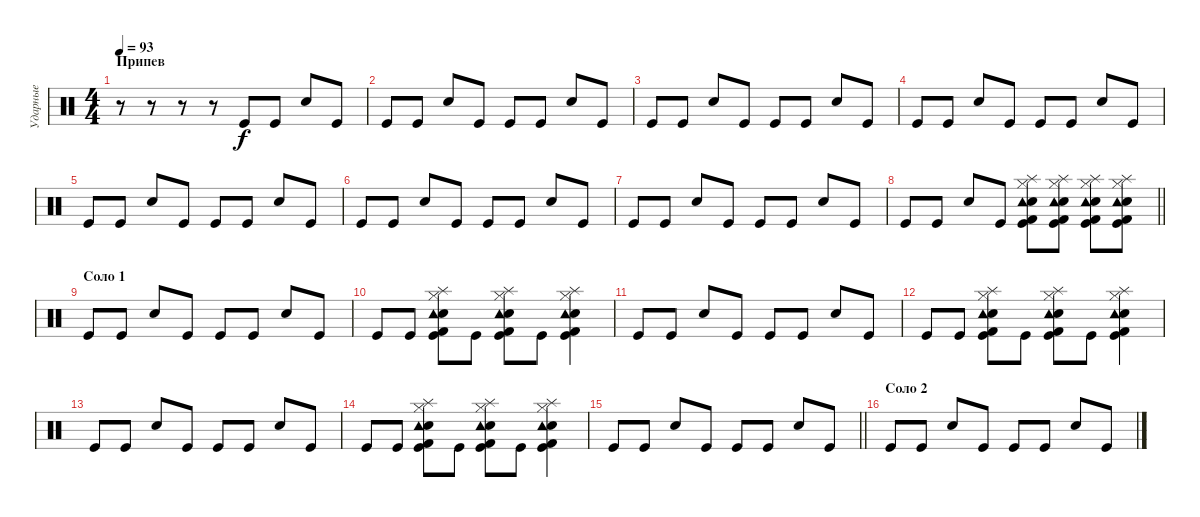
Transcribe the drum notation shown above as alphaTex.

\track ("Ударные" "Ударные") {instrument percussion}
\staff {score}
\articulation defaults
\ts (4 4)
\section ("" "Припев")
\tempo 93
\clef neutral
\ks c
r.8{dy f} r.8 r.8 r.8 "Kick (hit)".8 "Kick (hit)".8 "Snare (hit) 2".8 "Kick (hit)".8 |
"Kick (hit)".8 "Kick (hit)".8 "Snare (hit) 2".8 "Kick (hit)".8 "Kick (hit)".8 "Kick (hit)".8 "Snare (hit) 2".8 "Kick (hit)".8 |
"Kick (hit)".8 "Kick (hit)".8 "Snare (hit) 2".8 "Kick (hit)".8 "Kick (hit)".8 "Kick (hit)".8 "Snare (hit) 2".8 "Kick (hit)".8 |
"Kick (hit)".8 "Kick (hit)".8 "Snare (hit) 2".8 "Kick (hit)".8 "Kick (hit)".8 "Kick (hit)".8 "Snare (hit) 2".8 "Kick (hit)".8 |
"Kick (hit)".8 "Kick (hit)".8 "Snare (hit) 2".8 "Kick (hit)".8 "Kick (hit)".8 "Kick (hit)".8 "Snare (hit) 2".8 "Kick (hit)".8 |
"Kick (hit)".8 "Kick (hit)".8 "Snare (hit) 2".8 "Kick (hit)".8 "Kick (hit)".8 "Kick (hit)".8 "Snare (hit) 2".8 "Kick (hit)".8 |
"Kick (hit)".8 "Kick (hit)".8 "Snare (hit) 2".8 "Kick (hit)".8 "Kick (hit)".8 "Kick (hit)".8 "Snare (hit) 2".8 "Kick (hit)".8 |
\barLineRight lightlight "Kick (hit)".8 "Kick (hit)".8 "Snare (hit) 2".8 "Kick (hit)".8
("Kick (hit)" "Snare (hit) 2" "Kick (hit) 2" "Splash (hit)" "Tambourine (hit)" "Hi-Hat (closed)").8 ("Kick (hit)" "Snare (hit) 2" "Kick (hit) 2" "Splash (hit)" "Tambourine (hit)" "Hi-Hat (closed)").8 ("Kick (hit)" "Snare (hit) 2" "Kick (hit) 2" "Splash (hit)" "Tambourine (hit)" "Hi-Hat (closed)").8 ("Kick (hit)" "Snare (hit) 2" "Kick (hit) 2" "Splash (hit)" "Tambourine (hit)" "Hi-Hat (closed)").8 |
\section ("" "Соло 1")
"Kick (hit)".8 "Kick (hit)".8 "Snare (hit) 2".8 "Kick (hit)".8 "Kick (hit)".8 "Kick (hit)".8 "Snare (hit) 2".8 "Kick (hit)".8 |
"Kick (hit)".8 "Kick (hit)".8 ("Kick (hit)" "Kick (hit) 2" "Snare (hit) 2" "Hi-Hat (closed)" "Splash (hit)" "Tambourine (hit)").8 "Kick (hit)".8 ("Kick (hit)" "Kick (hit) 2" "Snare (hit) 2" "Hi-Hat (closed)" "Splash (hit)" "Tambourine (hit)").8 "Kick (hit)".8 ("Kick (hit)" "Kick (hit) 2" "Snare (hit) 2" "Hi-Hat (closed)" "Splash (hit)" "Tambourine (hit)").4 |
"Kick (hit)".8 "Kick (hit)".8 "Snare (hit) 2".8 "Kick (hit)".8 "Kick (hit)".8 "Kick (hit)".8 "Snare (hit) 2".8 "Kick (hit)".8 |
"Kick (hit)".8 "Kick (hit)".8 ("Kick (hit)" "Kick (hit) 2" "Snare (hit) 2" "Hi-Hat (closed)" "Splash (hit)" "Tambourine (hit)").8 "Kick (hit)".8 ("Kick (hit)" "Kick (hit) 2" "Snare (hit) 2" "Hi-Hat (closed)" "Splash (hit)" "Tambourine (hit)").8 "Kick (hit)".8 ("Kick (hit)" "Kick (hit) 2" "Snare (hit) 2" "Hi-Hat (closed)" "Splash (hit)" "Tambourine (hit)").4 |
"Kick (hit)".8 "Kick (hit)".8 "Snare (hit) 2".8 "Kick (hit)".8 "Kick (hit)".8 "Kick (hit)".8 "Snare (hit) 2".8 "Kick (hit)".8 |
"Kick (hit)".8 "Kick (hit)".8 ("Kick (hit)" "Kick (hit) 2" "Snare (hit) 2" "Hi-Hat (closed)" "Splash (hit)" "Tambourine (hit)").8 "Kick (hit)".8 ("Kick (hit)" "Kick (hit) 2" "Snare (hit) 2" "Hi-Hat (closed)" "Splash (hit)" "Tambourine (hit)").8 "Kick (hit)".8 ("Kick (hit)" "Kick (hit) 2" "Snare (hit) 2" "Hi-Hat (closed)" "Splash (hit)" "Tambourine (hit)").4 |
\barLineRight lightlight "Kick (hit)".8 "Kick (hit)".8 "Snare (hit) 2".8 "Kick (hit)".8 "Kick (hit)".8 "Kick (hit)".8 "Snare (hit) 2".8 "Kick (hit)".8
|
\section ("" "Соло 2")
"Kick (hit)".8 "Kick (hit)".8 "Snare (hit) 2".8 "Kick (hit)".8 "Kick (hit)".8 "Kick (hit)".8 "Snare (hit) 2".8 "Kick (hit)".8
